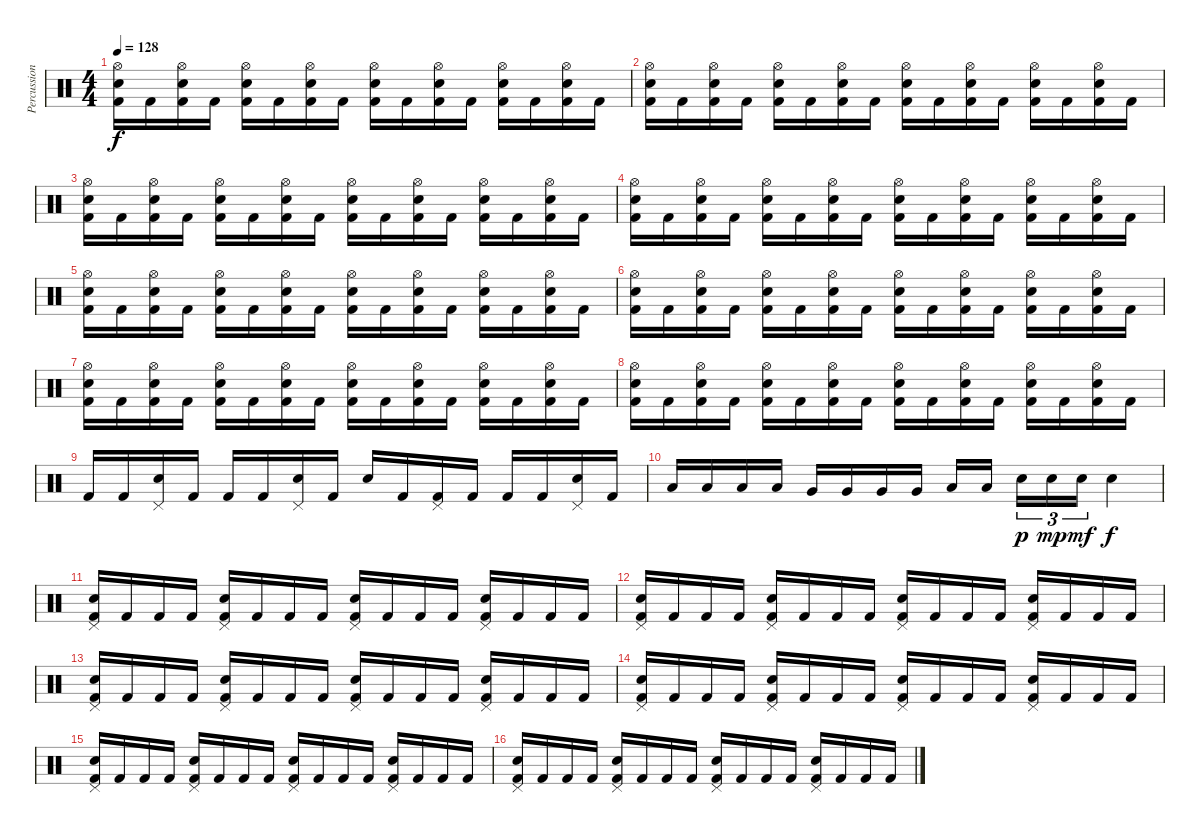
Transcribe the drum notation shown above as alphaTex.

\track ("Percussion" "Percussion") {instrument percussion}
\staff {score}
\articulation defaults
\ts (4 4)
\tempo 128
\clef neutral
\ks c
("Hi-Hat (open)" "Snare (hit) 2" "Kick (hit) 2").16{dy f} "Kick (hit) 2".16 ("Hi-Hat (open)" "Snare (hit) 2" "Kick (hit) 2").16 "Kick (hit) 2".16 ("Hi-Hat (open)" "Snare (hit) 2" "Kick (hit) 2").16 "Kick (hit) 2".16 ("Hi-Hat (open)" "Snare (hit) 2" "Kick (hit) 2").16 "Kick (hit) 2".16 ("Hi-Hat (open)" "Snare (hit) 2" "Kick (hit) 2").16 "Kick (hit) 2".16 ("Hi-Hat (open)" "Snare (hit) 2" "Kick (hit) 2").16 "Kick (hit) 2".16 ("Hi-Hat (open)" "Snare (hit) 2" "Kick (hit) 2").16 "Kick (hit) 2".16 ("Hi-Hat (open)" "Snare (hit) 2" "Kick (hit) 2").16 "Kick (hit) 2".16 |
("Hi-Hat (open)" "Snare (hit) 2" "Kick (hit) 2").16 "Kick (hit) 2".16 ("Hi-Hat (open)" "Snare (hit) 2" "Kick (hit) 2").16 "Kick (hit) 2".16 ("Hi-Hat (open)" "Snare (hit) 2" "Kick (hit) 2").16 "Kick (hit) 2".16 ("Hi-Hat (open)" "Snare (hit) 2" "Kick (hit) 2").16 "Kick (hit) 2".16 ("Hi-Hat (open)" "Snare (hit) 2" "Kick (hit) 2").16 "Kick (hit) 2".16 ("Hi-Hat (open)" "Snare (hit) 2" "Kick (hit) 2").16 "Kick (hit) 2".16 ("Hi-Hat (open)" "Snare (hit) 2" "Kick (hit) 2").16 "Kick (hit) 2".16 ("Hi-Hat (open)" "Snare (hit) 2" "Kick (hit) 2").16 "Kick (hit) 2".16 |
("Hi-Hat (open)" "Snare (hit) 2" "Kick (hit) 2").16 "Kick (hit) 2".16 ("Hi-Hat (open)" "Snare (hit) 2" "Kick (hit) 2").16 "Kick (hit) 2".16 ("Hi-Hat (open)" "Snare (hit) 2" "Kick (hit) 2").16 "Kick (hit) 2".16 ("Hi-Hat (open)" "Snare (hit) 2" "Kick (hit) 2").16 "Kick (hit) 2".16 ("Hi-Hat (open)" "Snare (hit) 2" "Kick (hit) 2").16 "Kick (hit) 2".16 ("Hi-Hat (open)" "Snare (hit) 2" "Kick (hit) 2").16 "Kick (hit) 2".16 ("Hi-Hat (open)" "Snare (hit) 2" "Kick (hit) 2").16 "Kick (hit) 2".16 ("Hi-Hat (open)" "Snare (hit) 2" "Kick (hit) 2").16 "Kick (hit) 2".16 |
("Hi-Hat (open)" "Snare (hit) 2" "Kick (hit) 2").16 "Kick (hit) 2".16 ("Hi-Hat (open)" "Snare (hit) 2" "Kick (hit) 2").16 "Kick (hit) 2".16 ("Hi-Hat (open)" "Snare (hit) 2" "Kick (hit) 2").16 "Kick (hit) 2".16 ("Hi-Hat (open)" "Snare (hit) 2" "Kick (hit) 2").16 "Kick (hit) 2".16 ("Hi-Hat (open)" "Snare (hit) 2" "Kick (hit) 2").16 "Kick (hit) 2".16 ("Hi-Hat (open)" "Snare (hit) 2" "Kick (hit) 2").16 "Kick (hit) 2".16 ("Hi-Hat (open)" "Snare (hit) 2" "Kick (hit) 2").16 "Kick (hit) 2".16 ("Hi-Hat (open)" "Snare (hit) 2" "Kick (hit) 2").16 "Kick (hit) 2".16 |
("Hi-Hat (open)" "Snare (hit) 2" "Kick (hit) 2").16 "Kick (hit) 2".16 ("Hi-Hat (open)" "Snare (hit) 2" "Kick (hit) 2").16 "Kick (hit) 2".16 ("Hi-Hat (open)" "Snare (hit) 2" "Kick (hit) 2").16 "Kick (hit) 2".16 ("Hi-Hat (open)" "Snare (hit) 2" "Kick (hit) 2").16 "Kick (hit) 2".16 ("Hi-Hat (open)" "Snare (hit) 2" "Kick (hit) 2").16 "Kick (hit) 2".16 ("Hi-Hat (open)" "Snare (hit) 2" "Kick (hit) 2").16 "Kick (hit) 2".16 ("Hi-Hat (open)" "Snare (hit) 2" "Kick (hit) 2").16 "Kick (hit) 2".16 ("Hi-Hat (open)" "Snare (hit) 2" "Kick (hit) 2").16 "Kick (hit) 2".16 |
("Hi-Hat (open)" "Snare (hit) 2" "Kick (hit) 2").16 "Kick (hit) 2".16 ("Hi-Hat (open)" "Snare (hit) 2" "Kick (hit) 2").16 "Kick (hit) 2".16 ("Hi-Hat (open)" "Snare (hit) 2" "Kick (hit) 2").16 "Kick (hit) 2".16 ("Hi-Hat (open)" "Snare (hit) 2" "Kick (hit) 2").16 "Kick (hit) 2".16 ("Hi-Hat (open)" "Snare (hit) 2" "Kick (hit) 2").16 "Kick (hit) 2".16 ("Hi-Hat (open)" "Snare (hit) 2" "Kick (hit) 2").16 "Kick (hit) 2".16 ("Hi-Hat (open)" "Snare (hit) 2" "Kick (hit) 2").16 "Kick (hit) 2".16 ("Hi-Hat (open)" "Snare (hit) 2" "Kick (hit) 2").16 "Kick (hit) 2".16 |
("Hi-Hat (open)" "Snare (hit) 2" "Kick (hit) 2").16 "Kick (hit) 2".16 ("Hi-Hat (open)" "Snare (hit) 2" "Kick (hit) 2").16 "Kick (hit) 2".16 ("Hi-Hat (open)" "Snare (hit) 2" "Kick (hit) 2").16 "Kick (hit) 2".16 ("Hi-Hat (open)" "Snare (hit) 2" "Kick (hit) 2").16 "Kick (hit) 2".16 ("Hi-Hat (open)" "Snare (hit) 2" "Kick (hit) 2").16 "Kick (hit) 2".16 ("Hi-Hat (open)" "Snare (hit) 2" "Kick (hit) 2").16 "Kick (hit) 2".16 ("Hi-Hat (open)" "Snare (hit) 2" "Kick (hit) 2").16 "Kick (hit) 2".16 ("Hi-Hat (open)" "Snare (hit) 2" "Kick (hit) 2").16 "Kick (hit) 2".16 |
("Hi-Hat (open)" "Snare (hit) 2" "Kick (hit) 2").16 "Kick (hit) 2".16 ("Hi-Hat (open)" "Snare (hit) 2" "Kick (hit) 2").16 "Kick (hit) 2".16 ("Hi-Hat (open)" "Snare (hit) 2" "Kick (hit) 2").16 "Kick (hit) 2".16 ("Hi-Hat (open)" "Snare (hit) 2" "Kick (hit) 2").16 "Kick (hit) 2".16 ("Hi-Hat (open)" "Snare (hit) 2" "Kick (hit) 2").16 "Kick (hit) 2".16 ("Hi-Hat (open)" "Snare (hit) 2" "Kick (hit) 2").16 "Kick (hit) 2".16 ("Hi-Hat (open)" "Snare (hit) 2" "Kick (hit) 2").16 "Kick (hit) 2".16 ("Hi-Hat (open)" "Snare (hit) 2" "Kick (hit) 2").16 "Kick (hit) 2".16 |
"Kick (hit) 2".16 "Kick (hit) 2".16 ("Pedal Hi-Hat (hit)" "Snare (hit) 2").16 "Kick (hit) 2".16 "Kick (hit) 2".16 "Kick (hit) 2".16 ("Pedal Hi-Hat (hit)" "Snare (hit) 2").16 "Kick (hit) 2".16 "Snare (hit) 2".16 "Kick (hit) 2".16 ("Pedal Hi-Hat (hit)" "Kick (hit) 2").16 "Kick (hit) 2".16 "Kick (hit) 2".16 "Kick (hit) 2".16 ("Pedal Hi-Hat (hit)" "Snare (hit) 2").16 "Kick (hit) 2".16 |
"Low Tom (hit)".16 "Low Tom (hit)".16 "Low Tom (hit)".16 "Low Tom (hit)".16 "Very Low Tom (hit)".16 "Very Low Tom (hit)".16 "Very Low Tom (hit)".16 "Very Low Tom (hit)".16 "Low Floor Tom (hit)".16 "Low Floor Tom (hit)".16{beam splitsecondary} "Snare (hit) 2".16{tu (3 2) dy p} "Snare (hit) 2".16{tu (3 2) dy mp} "Snare (hit) 2".16{tu (3 2) dy mf} "Snare (hit) 2".4{dy f} |
("Pedal Hi-Hat (hit)" "Snare (hit) 2" "Kick (hit) 2").16 "Kick (hit) 2".16 "Kick (hit) 2".16 "Kick (hit) 2".16 ("Pedal Hi-Hat (hit)" "Snare (hit) 2" "Kick (hit) 2").16 "Kick (hit) 2".16 "Kick (hit) 2".16 "Kick (hit) 2".16 ("Pedal Hi-Hat (hit)" "Snare (hit) 2" "Kick (hit) 2").16 "Kick (hit) 2".16 "Kick (hit) 2".16 "Kick (hit) 2".16 ("Pedal Hi-Hat (hit)" "Snare (hit) 2" "Kick (hit) 2").16 "Kick (hit) 2".16 "Kick (hit) 2".16 "Kick (hit) 2".16 |
("Pedal Hi-Hat (hit)" "Snare (hit) 2" "Kick (hit) 2").16 "Kick (hit) 2".16 "Kick (hit) 2".16 "Kick (hit) 2".16 ("Pedal Hi-Hat (hit)" "Snare (hit) 2" "Kick (hit) 2").16 "Kick (hit) 2".16 "Kick (hit) 2".16 "Kick (hit) 2".16 ("Pedal Hi-Hat (hit)" "Snare (hit) 2" "Kick (hit) 2").16 "Kick (hit) 2".16 "Kick (hit) 2".16 "Kick (hit) 2".16 ("Pedal Hi-Hat (hit)" "Snare (hit) 2" "Kick (hit) 2").16 "Kick (hit) 2".16 "Kick (hit) 2".16 "Kick (hit) 2".16 |
("Pedal Hi-Hat (hit)" "Snare (hit) 2" "Kick (hit) 2").16 "Kick (hit) 2".16 "Kick (hit) 2".16 "Kick (hit) 2".16 ("Pedal Hi-Hat (hit)" "Snare (hit) 2" "Kick (hit) 2").16 "Kick (hit) 2".16 "Kick (hit) 2".16 "Kick (hit) 2".16 ("Pedal Hi-Hat (hit)" "Snare (hit) 2" "Kick (hit) 2").16 "Kick (hit) 2".16 "Kick (hit) 2".16 "Kick (hit) 2".16 ("Pedal Hi-Hat (hit)" "Snare (hit) 2" "Kick (hit) 2").16 "Kick (hit) 2".16 "Kick (hit) 2".16 "Kick (hit) 2".16 |
("Pedal Hi-Hat (hit)" "Snare (hit) 2" "Kick (hit) 2").16 "Kick (hit) 2".16 "Kick (hit) 2".16 "Kick (hit) 2".16 ("Pedal Hi-Hat (hit)" "Snare (hit) 2" "Kick (hit) 2").16 "Kick (hit) 2".16 "Kick (hit) 2".16 "Kick (hit) 2".16 ("Pedal Hi-Hat (hit)" "Snare (hit) 2" "Kick (hit) 2").16 "Kick (hit) 2".16 "Kick (hit) 2".16 "Kick (hit) 2".16 ("Pedal Hi-Hat (hit)" "Snare (hit) 2" "Kick (hit) 2").16 "Kick (hit) 2".16 "Kick (hit) 2".16 "Kick (hit) 2".16 |
("Pedal Hi-Hat (hit)" "Snare (hit) 2" "Kick (hit) 2").16 "Kick (hit) 2".16 "Kick (hit) 2".16 "Kick (hit) 2".16 ("Pedal Hi-Hat (hit)" "Snare (hit) 2" "Kick (hit) 2").16 "Kick (hit) 2".16 "Kick (hit) 2".16 "Kick (hit) 2".16 ("Pedal Hi-Hat (hit)" "Snare (hit) 2" "Kick (hit) 2").16 "Kick (hit) 2".16 "Kick (hit) 2".16 "Kick (hit) 2".16 ("Pedal Hi-Hat (hit)" "Snare (hit) 2" "Kick (hit) 2").16 "Kick (hit) 2".16 "Kick (hit) 2".16 "Kick (hit) 2".16 |
("Pedal Hi-Hat (hit)" "Snare (hit) 2" "Kick (hit) 2").16 "Kick (hit) 2".16 "Kick (hit) 2".16 "Kick (hit) 2".16 ("Pedal Hi-Hat (hit)" "Snare (hit) 2" "Kick (hit) 2").16 "Kick (hit) 2".16 "Kick (hit) 2".16 "Kick (hit) 2".16 ("Pedal Hi-Hat (hit)" "Snare (hit) 2" "Kick (hit) 2").16 "Kick (hit) 2".16 "Kick (hit) 2".16 "Kick (hit) 2".16 ("Pedal Hi-Hat (hit)" "Snare (hit) 2" "Kick (hit) 2").16 "Kick (hit) 2".16 "Kick (hit) 2".16 "Kick (hit) 2".16
